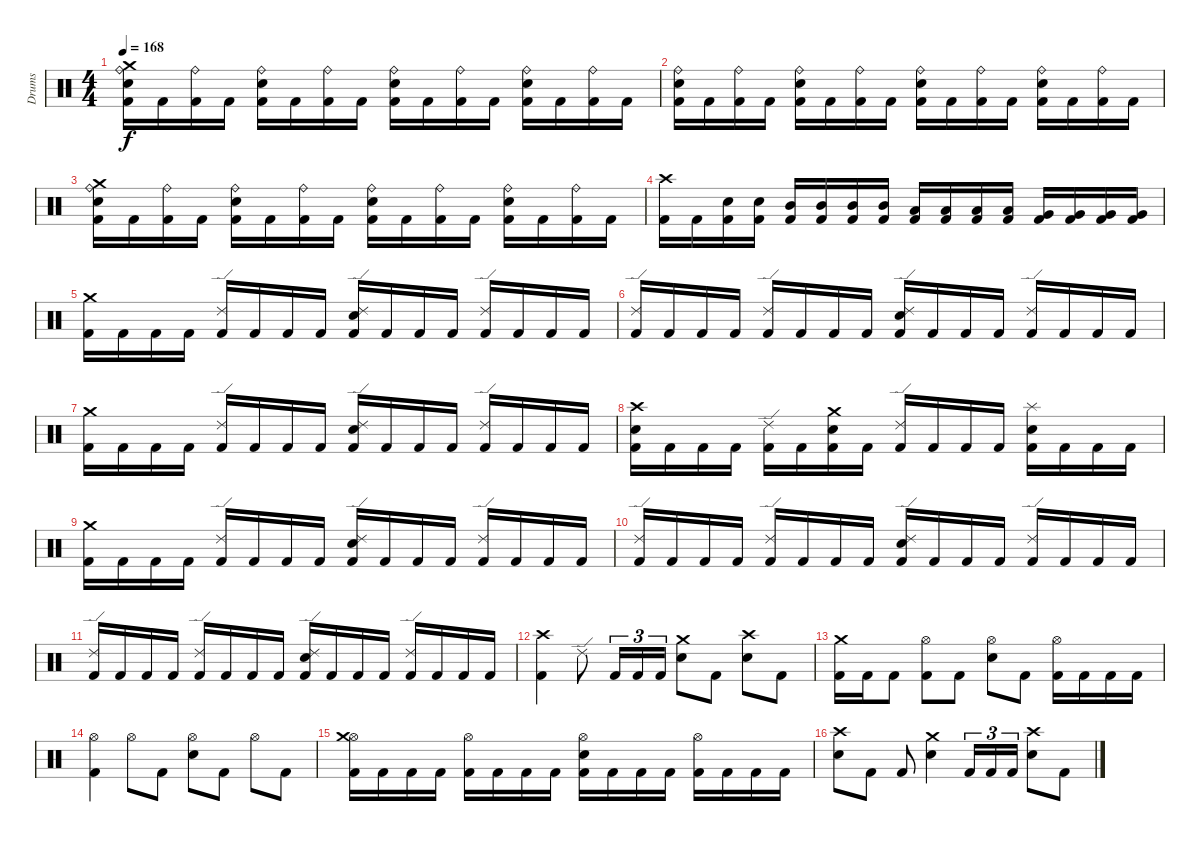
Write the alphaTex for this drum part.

\track ("Drums" "Drums") {instrument percussion}
\staff {score}
\articulation defaults
\ts (4 4)
\tempo 168
\clef neutral
\ks c
("Kick (hit) 2" "Snare (hit) 2" "Ride (bell)" "Crash medium (hit)").16{dy f} "Kick (hit) 2".16 ("Kick (hit) 2" "Ride (bell)").16 "Kick (hit) 2".16 ("Kick (hit) 2" "Snare (hit) 2" "Ride (bell)").16 "Kick (hit) 2".16 ("Kick (hit) 2" "Ride (bell)").16 "Kick (hit) 2".16 ("Kick (hit) 2" "Snare (hit) 2" "Ride (bell)").16 "Kick (hit) 2".16 ("Kick (hit) 2" "Ride (bell)").16 "Kick (hit) 2".16 ("Kick (hit) 2" "Snare (hit) 2" "Ride (bell)").16 "Kick (hit) 2".16 ("Kick (hit) 2" "Ride (bell)").16 "Kick (hit) 2".16 |
("Kick (hit) 2" "Snare (hit) 2" "Ride (bell)").16 "Kick (hit) 2".16 ("Kick (hit) 2" "Ride (bell)").16 "Kick (hit) 2".16 ("Kick (hit) 2" "Snare (hit) 2" "Ride (bell)").16 "Kick (hit) 2".16 ("Kick (hit) 2" "Ride (bell)").16 "Kick (hit) 2".16 ("Kick (hit) 2" "Snare (hit) 2" "Ride (bell)").16 "Kick (hit) 2".16 ("Kick (hit) 2" "Ride (bell)").16 "Kick (hit) 2".16 ("Kick (hit) 2" "Snare (hit) 2" "Ride (bell)").16 "Kick (hit) 2".16 ("Kick (hit) 2" "Ride (bell)").16 "Kick (hit) 2".16 |
("Kick (hit) 2" "Snare (hit) 2" "Ride (bell)" "Crash medium (hit)").16 "Kick (hit) 2".16 ("Kick (hit) 2" "Ride (bell)").16 "Kick (hit) 2".16 ("Kick (hit) 2" "Snare (hit) 2" "Ride (bell)").16 "Kick (hit) 2".16 ("Kick (hit) 2" "Ride (bell)").16 "Kick (hit) 2".16 ("Kick (hit) 2" "Snare (hit) 2" "Ride (bell)").16 "Kick (hit) 2".16 ("Kick (hit) 2" "Ride (bell)").16 "Kick (hit) 2".16 ("Kick (hit) 2" "Snare (hit) 2" "Ride (bell)").16 "Kick (hit) 2".16 ("Kick (hit) 2" "Ride (bell)").16 "Kick (hit) 2".16 |
("Kick (hit) 2" "Crash high (hit)").16 "Kick (hit) 2".16 ("Kick (hit) 2" "Snare (hit) 2").16 ("Kick (hit) 2" "Snare (hit) 2").16 ("Kick (hit) 2" "Mid Tom (hit)").16 ("Kick (hit) 2" "Mid Tom (hit)").16 ("Kick (hit) 2" "Mid Tom (hit)").16 ("Kick (hit) 2" "Mid Tom (hit)").16 ("Kick (hit) 2" "Low Tom (hit)").16 ("Kick (hit) 2" "Low Tom (hit)").16 ("Kick (hit) 2" "Low Tom (hit)").16 ("Kick (hit) 2" "Low Tom (hit)").16 ("Kick (hit) 2" "Very Low Tom (hit)").16 ("Kick (hit) 2" "Very Low Tom (hit)").16 ("Kick (hit) 2" "Very Low Tom (hit)").16 ("Kick (hit) 2" "Very Low Tom (hit)").16 |
("Kick (hit) 2" "Crash medium (hit)").16 "Kick (hit) 2".16 "Kick (hit) 2".16 "Kick (hit) 2".16 ("Kick (hit) 2" "Ride (edge) 2").16 "Kick (hit) 2".16 "Kick (hit) 2".16 "Kick (hit) 2".16 ("Kick (hit) 2" "Snare (hit) 2" "Ride (edge) 2").16 "Kick (hit) 2".16 "Kick (hit) 2".16 "Kick (hit) 2".16 ("Kick (hit) 2" "Ride (edge) 2").16 "Kick (hit) 2".16 "Kick (hit) 2".16 "Kick (hit) 2".16 |
("Kick (hit) 2" "Ride (edge) 2").16 "Kick (hit) 2".16 "Kick (hit) 2".16 "Kick (hit) 2".16 ("Kick (hit) 2" "Ride (edge) 2").16 "Kick (hit) 2".16 "Kick (hit) 2".16 "Kick (hit) 2".16 ("Kick (hit) 2" "Snare (hit) 2" "Ride (edge) 2").16 "Kick (hit) 2".16 "Kick (hit) 2".16 "Kick (hit) 2".16 ("Kick (hit) 2" "Ride (edge) 2").16 "Kick (hit) 2".16 "Kick (hit) 2".16 "Kick (hit) 2".16 |
("Kick (hit) 2" "Crash medium (hit)").16 "Kick (hit) 2".16 "Kick (hit) 2".16 "Kick (hit) 2".16 ("Kick (hit) 2" "Ride (edge) 2").16 "Kick (hit) 2".16 "Kick (hit) 2".16 "Kick (hit) 2".16 ("Kick (hit) 2" "Snare (hit) 2" "Ride (edge) 2").16 "Kick (hit) 2".16 "Kick (hit) 2".16 "Kick (hit) 2".16 ("Kick (hit) 2" "Ride (edge) 2").16 "Kick (hit) 2".16 "Kick (hit) 2".16 "Kick (hit) 2".16 |
("Kick (hit) 2" "Snare (hit) 2" "Crash high (hit)").16 "Kick (hit) 2".16 "Kick (hit) 2".16 "Kick (hit) 2".16 ("Kick (hit) 2" "Ride (edge) 2").16 "Kick (hit) 2".16 ("Kick (hit) 2" "Snare (hit) 2" "Crash medium (hit)").16 "Kick (hit) 2".16 ("Kick (hit) 2" "Ride (edge) 2").16 "Kick (hit) 2".16 "Kick (hit) 2".16 "Kick (hit) 2".16 ("Kick (hit) 2" "Snare (hit) 2" "Splash (hit)").16 "Kick (hit) 2".16 "Kick (hit) 2".16 "Kick (hit) 2".16 |
("Kick (hit) 2" "Crash medium (hit)").16 "Kick (hit) 2".16 "Kick (hit) 2".16 "Kick (hit) 2".16 ("Kick (hit) 2" "Ride (edge) 2").16 "Kick (hit) 2".16 "Kick (hit) 2".16 "Kick (hit) 2".16 ("Kick (hit) 2" "Snare (hit) 2" "Ride (edge) 2").16 "Kick (hit) 2".16 "Kick (hit) 2".16 "Kick (hit) 2".16 ("Kick (hit) 2" "Ride (edge) 2").16 "Kick (hit) 2".16 "Kick (hit) 2".16 "Kick (hit) 2".16 |
("Kick (hit) 2" "Ride (edge) 2").16 "Kick (hit) 2".16 "Kick (hit) 2".16 "Kick (hit) 2".16 ("Kick (hit) 2" "Ride (edge) 2").16 "Kick (hit) 2".16 "Kick (hit) 2".16 "Kick (hit) 2".16 ("Kick (hit) 2" "Snare (hit) 2" "Ride (edge) 2").16 "Kick (hit) 2".16 "Kick (hit) 2".16 "Kick (hit) 2".16 ("Kick (hit) 2" "Ride (edge) 2").16 "Kick (hit) 2".16 "Kick (hit) 2".16 "Kick (hit) 2".16 |
("Kick (hit) 2" "Ride (edge) 2").16 "Kick (hit) 2".16 "Kick (hit) 2".16 "Kick (hit) 2".16 ("Kick (hit) 2" "Ride (edge) 2").16 "Kick (hit) 2".16 "Kick (hit) 2".16 "Kick (hit) 2".16 ("Kick (hit) 2" "Snare (hit) 2" "Ride (edge) 2").16 "Kick (hit) 2".16 "Kick (hit) 2".16 "Kick (hit) 2".16 ("Kick (hit) 2" "Ride (edge) 2").16 "Kick (hit) 2".16 "Kick (hit) 2".16 "Kick (hit) 2".16 |
("Kick (hit) 2" "Crash high (hit)").4 "Ride (edge) 2".8 "Kick (hit) 2".16{tu (3 2)} "Kick (hit) 2".16{tu (3 2)} "Kick (hit) 2".16{tu (3 2)} ("Electric Snare (hit)" "Crash medium (hit)").8 "Kick (hit) 2".8 ("Electric Snare (hit)" "Crash high (hit)").8 "Kick (hit) 2".8 |
("Kick (hit) 2" "Crash medium (hit)").16 "Kick (hit) 2".16 "Kick (hit) 2".8 ("Kick (hit) 2" "Hi-Hat (open)").8 "Kick (hit) 2".8 ("Snare (hit) 2" "Hi-Hat (open)").8 "Kick (hit) 2".8 ("Kick (hit) 2" "Hi-Hat (open)").16 "Kick (hit) 2".16 "Kick (hit) 2".16 "Kick (hit) 2".16 |
("Kick (hit) 2" "Hi-Hat (open)").4 "Hi-Hat (open)".8 "Kick (hit) 2".8 ("Snare (hit) 2" "Hi-Hat (open)").8 "Kick (hit) 2".8 "Hi-Hat (open)".8 "Kick (hit) 2".8 |
("Kick (hit) 2" "Hi-Hat (open)" "Crash medium (hit)").16 "Kick (hit) 2".16 "Kick (hit) 2".16 "Kick (hit) 2".16 ("Kick (hit) 2" "Hi-Hat (open)").16 "Kick (hit) 2".16 "Kick (hit) 2".16 "Kick (hit) 2".16 ("Kick (hit) 2" "Snare (hit) 2" "Hi-Hat (open)").16 "Kick (hit) 2".16 "Kick (hit) 2".16 "Kick (hit) 2".16 ("Kick (hit) 2" "Hi-Hat (open)").16 "Kick (hit) 2".16 "Kick (hit) 2".16 "Kick (hit) 2".16 |
("Snare (hit) 2" "Crash high (hit)").8 "Kick (hit) 2".8 "Kick (hit) 2".8 ("Snare (hit) 2" "Crash medium (hit)").4 "Kick (hit) 2".16{tu (3 2)} "Kick (hit) 2".16{tu (3 2)} "Kick (hit) 2".16{tu (3 2)} ("Snare (hit) 2" "Crash high (hit)").8 "Kick (hit) 2".8
